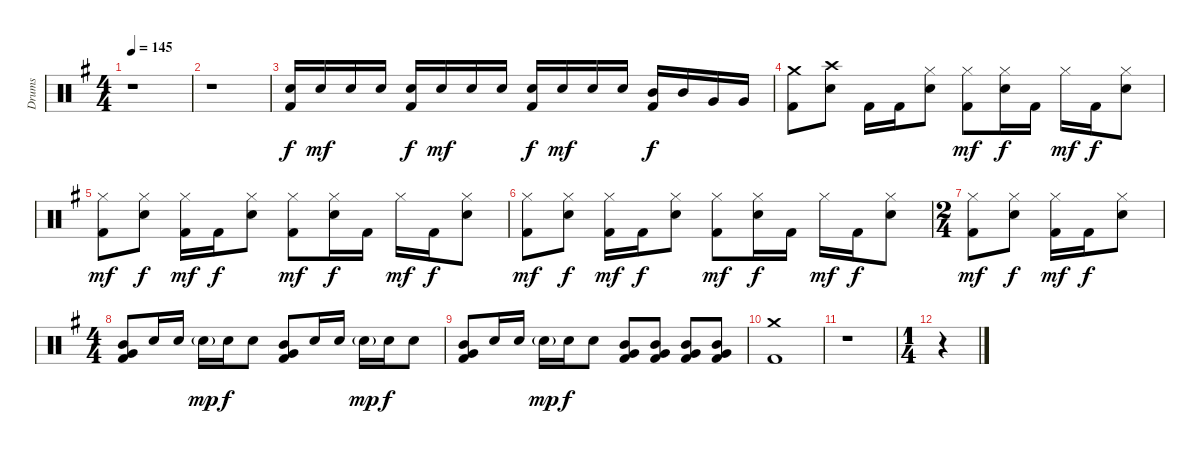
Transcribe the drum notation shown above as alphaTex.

\track ("Drums" "Drums") {instrument percussion}
\staff {score}
\articulation defaults
\ts (4 4)
\tempo 145
\clef neutral
\ks eminor
r.1{dy f} |
r.1 |
("Electric Snare (hit)" "Kick (hit) 2").16 "Electric Snare (hit)".16{dy mf} "Electric Snare (hit)".16 "Electric Snare (hit)".16 ("Electric Snare (hit)" "Kick (hit) 2").16{dy f} "Electric Snare (hit)".16{dy mf} "Electric Snare (hit)".16 "Electric Snare (hit)".16 ("Electric Snare (hit)" "Kick (hit) 2").16{dy f} "Electric Snare (hit)".16{dy mf} "Electric Snare (hit)".16 "Electric Snare (hit)".16 ("Mid Tom (hit)" "Kick (hit) 2").16{dy f} "Mid Tom (hit)".16 "Very Low Tom (hit)".16 "Very Low Tom (hit)".16 |
("Crash medium (hit)" "Kick (hit) 2").8 ("Crash high (hit)" "Electric Snare (hit)").8 "Kick (hit) 2".16 "Kick (hit) 2".16 ("Hi-Hat (closed)" "Electric Snare (hit)").8 ("Hi-Hat (closed)" "Kick (hit) 2").8{dy mf} ("Hi-Hat (closed)" "Electric Snare (hit)").16{dy f} "Kick (hit) 2".16 "Hi-Hat (closed)".16{dy mf} "Kick (hit) 2".16{dy f} ("Hi-Hat (closed)" "Electric Snare (hit)").8 |
("Hi-Hat (closed)" "Kick (hit) 2").8{dy mf} ("Hi-Hat (closed)" "Electric Snare (hit)").8{dy f} ("Hi-Hat (closed)" "Kick (hit) 2").16{dy mf} "Kick (hit) 2".16{dy f} ("Hi-Hat (closed)" "Electric Snare (hit)").8 ("Hi-Hat (closed)" "Kick (hit) 2").8{dy mf} ("Hi-Hat (closed)" "Electric Snare (hit)").16{dy f} "Kick (hit) 2".16 "Hi-Hat (closed)".16{dy mf} "Kick (hit) 2".16{dy f} ("Hi-Hat (closed)" "Electric Snare (hit)").8 |
("Hi-Hat (closed)" "Kick (hit) 2").8{dy mf} ("Hi-Hat (closed)" "Electric Snare (hit)").8{dy f} ("Hi-Hat (closed)" "Kick (hit) 2").16{dy mf} "Kick (hit) 2".16{dy f} ("Hi-Hat (closed)" "Electric Snare (hit)").8 ("Hi-Hat (closed)" "Kick (hit) 2").8{dy mf} ("Hi-Hat (closed)" "Electric Snare (hit)").16{dy f} "Kick (hit) 2".16 "Hi-Hat (closed)".16{dy mf} "Kick (hit) 2".16{dy f} ("Hi-Hat (closed)" "Electric Snare (hit)").8 |
\ts (2 4)
("Hi-Hat (closed)" "Kick (hit) 2").8{dy mf} ("Hi-Hat (closed)" "Electric Snare (hit)").8{dy f} ("Hi-Hat (closed)" "Kick (hit) 2").16{dy mf} "Kick (hit) 2".16{dy f} ("Hi-Hat (closed)" "Electric Snare (hit)").8 |
\ts (4 4)
("Mid Tom (hit)" "Very Low Tom (hit)" "Kick (hit) 2").8 "Electric Snare (hit)".16 "Electric Snare (hit)".16 "Electric Snare (hit)"{g}.16{dy mp} "Electric Snare (hit)".16{dy f} "Electric Snare (hit)".8 ("Mid Tom (hit)" "Very Low Tom (hit)" "Kick (hit) 2").8 "Electric Snare (hit)".16 "Electric Snare (hit)".16 "Electric Snare (hit)"{g}.16{dy mp} "Electric Snare (hit)".16{dy f} "Electric Snare (hit)".8 |
("Mid Tom (hit)" "Very Low Tom (hit)" "Kick (hit) 2").8 "Electric Snare (hit)".16 "Electric Snare (hit)".16 "Electric Snare (hit)"{g}.16{dy mp} "Electric Snare (hit)".16{dy f} "Electric Snare (hit)".8 ("Mid Tom (hit)" "Very Low Tom (hit)" "Kick (hit) 2").8 ("Mid Tom (hit)" "Very Low Tom (hit)" "Kick (hit) 2").8 ("Mid Tom (hit)" "Very Low Tom (hit)" "Kick (hit) 2").8 ("Mid Tom (hit)" "Very Low Tom (hit)" "Kick (hit) 2").8 |
("Crash medium (hit)" "Kick (hit) 2").1 |
r.1 |
\ts (1 4)
r.4
